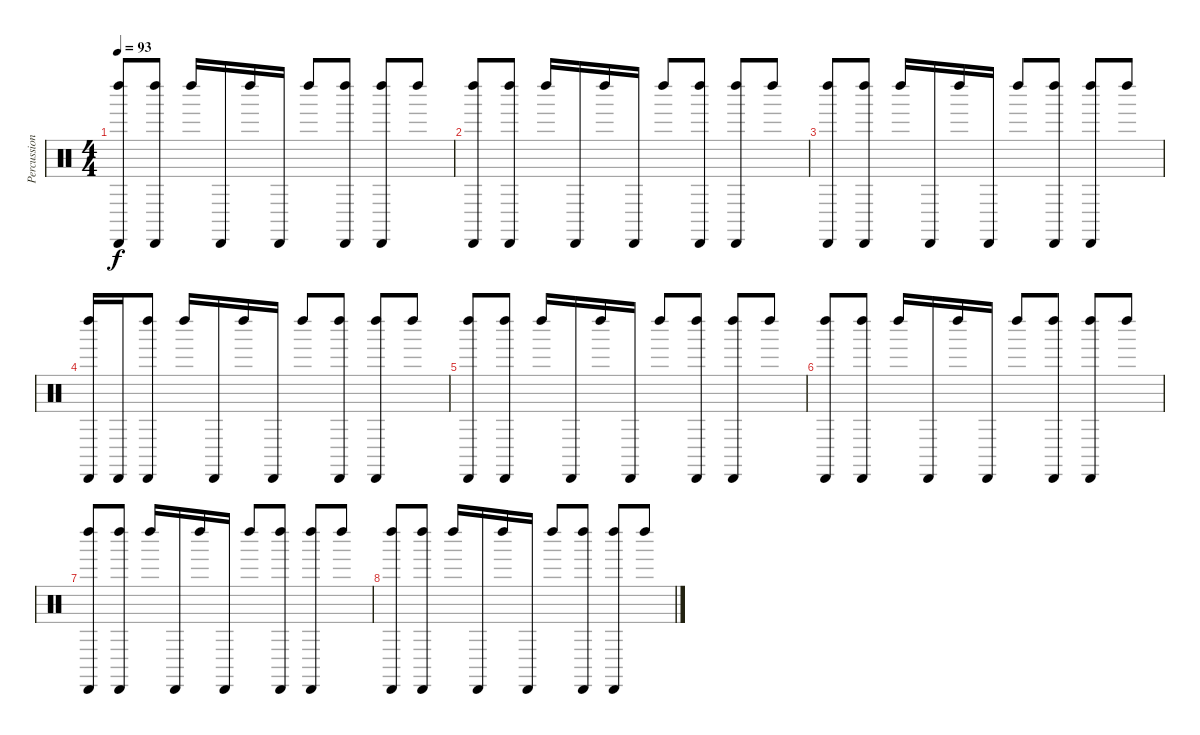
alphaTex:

\track ("Percussion" "Percussion") {instrument percussion}
\staff {score}
\articulation defaults
\ts (4 4)
\tempo 93
\clef neutral
\ks c
("Left Maraca (hit)" "Cabasa (hit)").8{dy f} ("Left Maraca (hit)" "Cabasa (hit)").8 "Left Maraca (hit)".16 "Cabasa (hit)".16 "Left Maraca (hit)".16 "Cabasa (hit)".16 "Left Maraca (hit)".8 ("Left Maraca (hit)" "Cabasa (hit)").8 ("Left Maraca (hit)" "Cabasa (hit)").8 "Left Maraca (hit)".8 |
("Left Maraca (hit)" "Cabasa (hit)").8 ("Left Maraca (hit)" "Cabasa (hit)").8 "Left Maraca (hit)".16 "Cabasa (hit)".16 "Left Maraca (hit)".16 "Cabasa (hit)".16 "Left Maraca (hit)".8 ("Left Maraca (hit)" "Cabasa (hit)").8 ("Left Maraca (hit)" "Cabasa (hit)").8 "Left Maraca (hit)".8 |
("Left Maraca (hit)" "Cabasa (hit)").8 ("Left Maraca (hit)" "Cabasa (hit)").8 "Left Maraca (hit)".16 "Cabasa (hit)".16 "Left Maraca (hit)".16 "Cabasa (hit)".16 "Left Maraca (hit)".8 ("Left Maraca (hit)" "Cabasa (hit)").8 ("Left Maraca (hit)" "Cabasa (hit)").8 "Left Maraca (hit)".8 |
("Left Maraca (hit)" "Cabasa (hit)").16 "Cabasa (hit)".16 ("Left Maraca (hit)" "Cabasa (hit)").8 "Left Maraca (hit)".16 "Cabasa (hit)".16 "Left Maraca (hit)".16 "Cabasa (hit)".16 "Left Maraca (hit)".8 ("Left Maraca (hit)" "Cabasa (hit)").8 ("Left Maraca (hit)" "Cabasa (hit)").8 "Left Maraca (hit)".8 |
("Left Maraca (hit)" "Cabasa (hit)").8 ("Left Maraca (hit)" "Cabasa (hit)").8 "Left Maraca (hit)".16 "Cabasa (hit)".16 "Left Maraca (hit)".16 "Cabasa (hit)".16 "Left Maraca (hit)".8 ("Left Maraca (hit)" "Cabasa (hit)").8 ("Left Maraca (hit)" "Cabasa (hit)").8 "Left Maraca (hit)".8 |
("Left Maraca (hit)" "Cabasa (hit)").8 ("Left Maraca (hit)" "Cabasa (hit)").8 "Left Maraca (hit)".16 "Cabasa (hit)".16 "Left Maraca (hit)".16 "Cabasa (hit)".16 "Left Maraca (hit)".8 ("Left Maraca (hit)" "Cabasa (hit)").8 ("Left Maraca (hit)" "Cabasa (hit)").8 "Left Maraca (hit)".8 |
("Left Maraca (hit)" "Cabasa (hit)").8 ("Left Maraca (hit)" "Cabasa (hit)").8 "Left Maraca (hit)".16 "Cabasa (hit)".16 "Left Maraca (hit)".16 "Cabasa (hit)".16 "Left Maraca (hit)".8 ("Left Maraca (hit)" "Cabasa (hit)").8 ("Left Maraca (hit)" "Cabasa (hit)").8 "Left Maraca (hit)".8 |
("Left Maraca (hit)" "Cabasa (hit)").8 ("Left Maraca (hit)" "Cabasa (hit)").8 "Left Maraca (hit)".16 "Cabasa (hit)".16 "Left Maraca (hit)".16 "Cabasa (hit)".16 "Left Maraca (hit)".8 ("Left Maraca (hit)" "Cabasa (hit)").8 ("Left Maraca (hit)" "Cabasa (hit)").8 "Left Maraca (hit)".8
